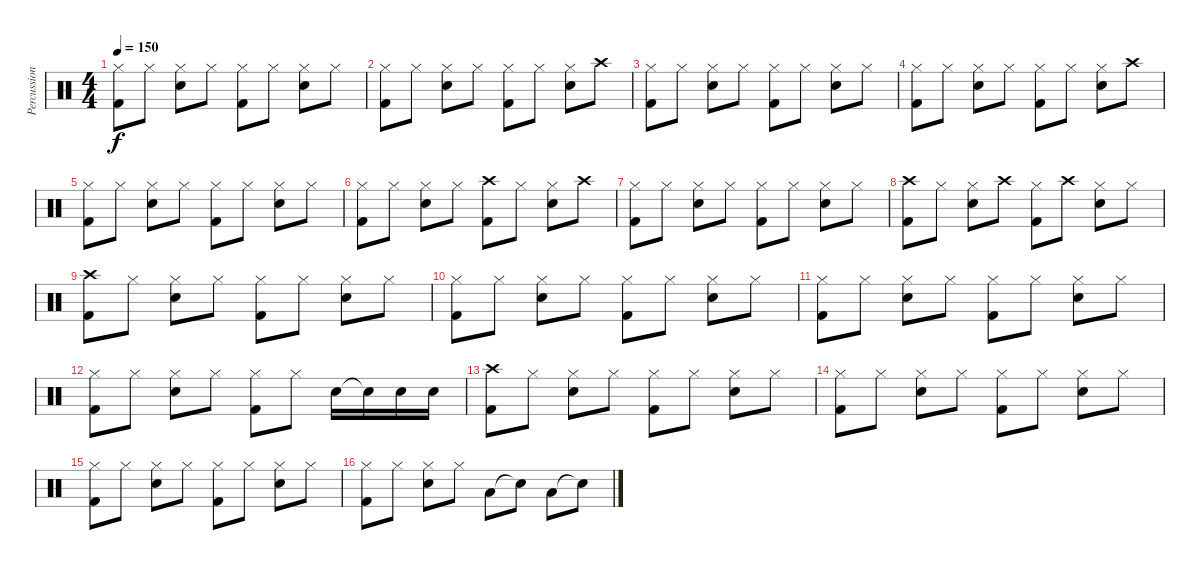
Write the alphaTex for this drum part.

\track ("Percussion" "Percussion") {instrument percussion}
\staff {score}
\articulation defaults
\ts (4 4)
\tempo 150
\clef neutral
\ks c
("Kick (hit) 2" "Hi-Hat (closed)").8{dy f} "Hi-Hat (closed)".8 ("Snare (hit) 2" "Hi-Hat (closed)").8 "Hi-Hat (closed)".8 ("Kick (hit) 2" "Hi-Hat (closed)").8 "Hi-Hat (closed)".8 ("Snare (hit) 2" "Hi-Hat (closed)").8 "Hi-Hat (closed)".8 |
("Kick (hit) 2" "Hi-Hat (closed)").8 "Hi-Hat (closed)".8 ("Snare (hit) 2" "Hi-Hat (closed)").8 "Hi-Hat (closed)".8 ("Kick (hit) 2" "Hi-Hat (closed)").8 "Hi-Hat (closed)".8 ("Snare (hit) 2" "Hi-Hat (closed)").8 "Crash high (hit)".8 |
("Kick (hit) 2" "Hi-Hat (closed)").8 "Hi-Hat (closed)".8 ("Snare (hit) 2" "Hi-Hat (closed)").8 "Hi-Hat (closed)".8 ("Kick (hit) 2" "Hi-Hat (closed)").8 "Hi-Hat (closed)".8 ("Snare (hit) 2" "Hi-Hat (closed)").8 "Hi-Hat (closed)".8 |
("Kick (hit) 2" "Hi-Hat (closed)").8 "Hi-Hat (closed)".8 ("Snare (hit) 2" "Hi-Hat (closed)").8 "Hi-Hat (closed)".8 ("Kick (hit) 2" "Hi-Hat (closed)").8 "Hi-Hat (closed)".8 ("Snare (hit) 2" "Hi-Hat (closed)").8 "Crash high (hit)".8 |
("Kick (hit) 2" "Hi-Hat (closed)").8 "Hi-Hat (closed)".8 ("Snare (hit) 2" "Hi-Hat (closed)").8 "Hi-Hat (closed)".8 ("Kick (hit) 2" "Hi-Hat (closed)").8 "Hi-Hat (closed)".8 ("Snare (hit) 2" "Hi-Hat (closed)").8 "Hi-Hat (closed)".8 |
("Kick (hit) 2" "Hi-Hat (closed)").8 "Hi-Hat (closed)".8 ("Snare (hit) 2" "Hi-Hat (closed)").8 "Hi-Hat (closed)".8 ("Kick (hit) 2" "Crash high (hit)").8 "Hi-Hat (closed)".8 ("Snare (hit) 2" "Hi-Hat (closed)").8 "Crash high (hit)".8 |
("Kick (hit) 2" "Hi-Hat (closed)").8 "Hi-Hat (closed)".8 ("Snare (hit) 2" "Hi-Hat (closed)").8 "Hi-Hat (closed)".8 ("Kick (hit) 2" "Hi-Hat (closed)").8 "Hi-Hat (closed)".8 ("Snare (hit) 2" "Hi-Hat (closed)").8 "Hi-Hat (closed)".8 |
("Kick (hit) 2" "Crash high (hit)").8 "Hi-Hat (closed)".8 ("Snare (hit) 2" "Hi-Hat (closed)").8 "Crash high (hit)".8 ("Kick (hit) 2" "Hi-Hat (closed)").8 "Crash high (hit)".8 ("Snare (hit) 2" "Hi-Hat (closed)").8 "Hi-Hat (closed)".8 |
("Kick (hit) 2" "Crash high (hit)").8 "Hi-Hat (closed)".8 ("Snare (hit) 2" "Hi-Hat (closed)").8 "Hi-Hat (closed)".8 ("Kick (hit) 2" "Hi-Hat (closed)").8 "Hi-Hat (closed)".8 ("Snare (hit) 2" "Hi-Hat (closed)").8 "Hi-Hat (closed)".8 |
("Kick (hit) 2" "Hi-Hat (closed)").8 "Hi-Hat (closed)".8 ("Snare (hit) 2" "Hi-Hat (closed)").8 "Hi-Hat (closed)".8 ("Kick (hit) 2" "Hi-Hat (closed)").8 "Hi-Hat (closed)".8 ("Snare (hit) 2" "Hi-Hat (closed)").8 "Hi-Hat (closed)".8 |
("Kick (hit) 2" "Hi-Hat (closed)").8 "Hi-Hat (closed)".8 ("Snare (hit) 2" "Hi-Hat (closed)").8 "Hi-Hat (closed)".8 ("Kick (hit) 2" "Hi-Hat (closed)").8 "Hi-Hat (closed)".8 ("Snare (hit) 2" "Hi-Hat (closed)").8 "Hi-Hat (closed)".8 |
("Kick (hit) 2" "Hi-Hat (closed)").8 "Hi-Hat (closed)".8 ("Snare (hit) 2" "Hi-Hat (closed)").8 "Hi-Hat (closed)".8 ("Kick (hit) 2" "Hi-Hat (closed)").8 "Hi-Hat (closed)".8 "Snare (hit) 2".16 "Snare (hit)"{t}.16 "Snare (hit) 2".16 "Snare (hit) 2".16 |
("Kick (hit) 2" "Crash high (hit)").8 "Hi-Hat (closed)".8 ("Snare (hit) 2" "Hi-Hat (closed)").8 "Hi-Hat (closed)".8 ("Kick (hit) 2" "Hi-Hat (closed)").8 "Hi-Hat (closed)".8 ("Snare (hit) 2" "Hi-Hat (closed)").8 "Hi-Hat (closed)".8 |
("Kick (hit) 2" "Hi-Hat (closed)").8 "Hi-Hat (closed)".8 ("Snare (hit) 2" "Hi-Hat (closed)").8 "Hi-Hat (closed)".8 ("Kick (hit) 2" "Hi-Hat (closed)").8 "Hi-Hat (closed)".8 ("Snare (hit) 2" "Hi-Hat (closed)").8 "Hi-Hat (closed)".8 |
("Kick (hit) 2" "Hi-Hat (closed)").8 "Hi-Hat (closed)".8 ("Snare (hit) 2" "Hi-Hat (closed)").8 "Hi-Hat (closed)".8 ("Kick (hit) 2" "Hi-Hat (closed)").8 "Hi-Hat (closed)".8 ("Snare (hit) 2" "Hi-Hat (closed)").8 "Hi-Hat (closed)".8 |
("Kick (hit) 2" "Hi-Hat (closed)").8 "Hi-Hat (closed)".8 ("Snare (hit) 2" "Hi-Hat (closed)").8 "Hi-Hat (closed)".8 "Low Tom (hit)".8 "Snare (hit)"{t}.8 "Low Tom (hit)".8 "Snare (hit)"{t}.8
